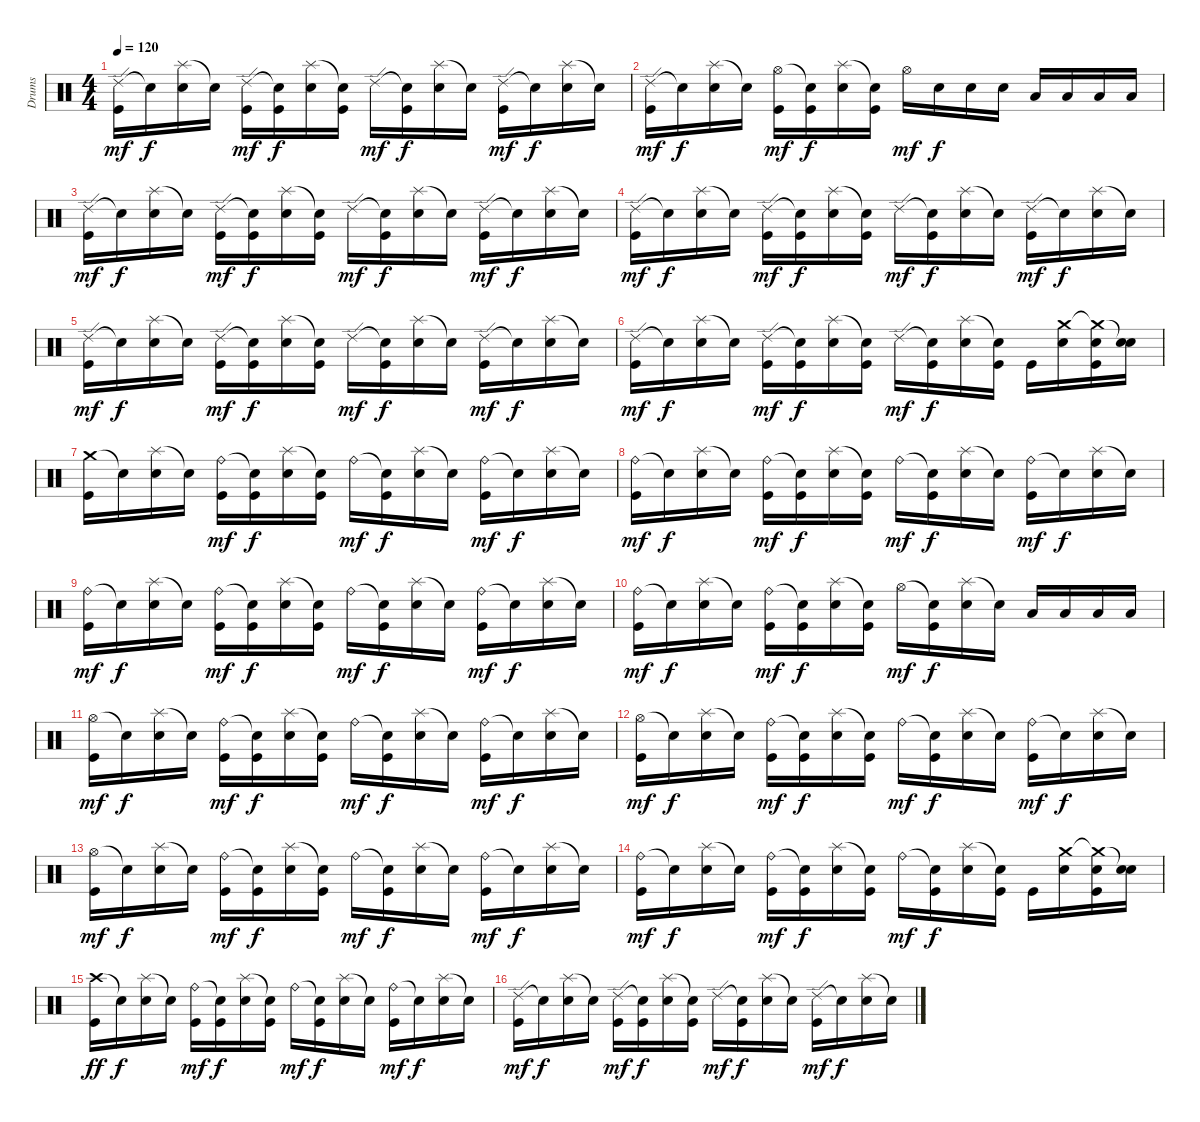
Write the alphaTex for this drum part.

\track ("Drums" "Drums") {instrument percussion}
\staff {score}
\articulation defaults
\ts (4 4)
\tempo 120
\clef neutral
\ks c
("Ride (edge) 2" "Kick (hit)").16{dy mf} "Snare (hit)"{t}.16{dy f} ("Splash (hit)" "Electric Snare (hit)").16 "Snare (hit)"{t}.16 ("Ride (edge) 2" "Kick (hit)").16{dy mf} ("Snare (hit)"{t} "Kick (hit)").16{dy f} ("Splash (hit)" "Electric Snare (hit)").16 ("Snare (hit)"{t} "Kick (hit)").16 "Ride (edge) 2".16{dy mf} ("Snare (hit)"{t} "Kick (hit)").16{dy f} ("Splash (hit)" "Electric Snare (hit)").16 "Snare (hit)"{t}.16 ("Ride (edge) 2" "Kick (hit)").16{dy mf} "Snare (hit)"{t}.16{dy f} ("Splash (hit)" "Electric Snare (hit)").16 "Snare (hit)"{t}.16 |
("Ride (edge) 2" "Kick (hit)").16{dy mf} "Snare (hit)"{t}.16{dy f} ("Splash (hit)" "Electric Snare (hit)").16 "Snare (hit)"{t}.16 ("Hi-Hat (open)" "Kick (hit)").16{dy mf} ("Snare (hit)"{t} "Kick (hit)").16{dy f} ("Splash (hit)" "Electric Snare (hit)").16 ("Snare (hit)"{t} "Kick (hit)").16 "Hi-Hat (open)".16{dy mf} "Snare (hit) 2".16{dy f} "Snare (hit) 2".16 "Snare (hit) 2".16 "Low Tom (hit)".16 "Low Tom (hit)".16 "Low Tom (hit)".16 "Low Tom (hit)".16 |
("Ride (edge) 2" "Kick (hit)").16{dy mf} "Snare (hit)"{t}.16{dy f} ("Splash (hit)" "Electric Snare (hit)").16 "Snare (hit)"{t}.16 ("Ride (edge) 2" "Kick (hit)").16{dy mf} ("Snare (hit)"{t} "Kick (hit)").16{dy f} ("Splash (hit)" "Electric Snare (hit)").16 ("Snare (hit)"{t} "Kick (hit)").16 "Ride (edge) 2".16{dy mf} ("Snare (hit)"{t} "Kick (hit)").16{dy f} ("Splash (hit)" "Electric Snare (hit)").16 "Snare (hit)"{t}.16 ("Ride (edge) 2" "Kick (hit)").16{dy mf} "Snare (hit)"{t}.16{dy f} ("Splash (hit)" "Electric Snare (hit)").16 "Snare (hit)"{t}.16 |
("Ride (edge) 2" "Kick (hit)").16{dy mf} "Snare (hit)"{t}.16{dy f} ("Splash (hit)" "Electric Snare (hit)").16 "Snare (hit)"{t}.16 ("Ride (edge) 2" "Kick (hit)").16{dy mf} ("Snare (hit)"{t} "Kick (hit)").16{dy f} ("Splash (hit)" "Electric Snare (hit)").16 ("Snare (hit)"{t} "Kick (hit)").16 "Ride (edge) 2".16{dy mf} ("Snare (hit)"{t} "Kick (hit)").16{dy f} ("Splash (hit)" "Electric Snare (hit)").16 "Snare (hit)"{t}.16 ("Ride (edge) 2" "Kick (hit)").16{dy mf} "Snare (hit)"{t}.16{dy f} ("Splash (hit)" "Electric Snare (hit)").16 "Snare (hit)"{t}.16 |
("Ride (edge) 2" "Kick (hit)").16{dy mf} "Snare (hit)"{t}.16{dy f} ("Splash (hit)" "Electric Snare (hit)").16 "Snare (hit)"{t}.16 ("Ride (edge) 2" "Kick (hit)").16{dy mf} ("Snare (hit)"{t} "Kick (hit)").16{dy f} ("Splash (hit)" "Electric Snare (hit)").16 ("Snare (hit)"{t} "Kick (hit)").16 "Ride (edge) 2".16{dy mf} ("Snare (hit)"{t} "Kick (hit)").16{dy f} ("Splash (hit)" "Electric Snare (hit)").16 "Snare (hit)"{t}.16 ("Ride (edge) 2" "Kick (hit)").16{dy mf} "Snare (hit)"{t}.16{dy f} ("Splash (hit)" "Electric Snare (hit)").16 "Snare (hit)"{t}.16 |
("Ride (edge) 2" "Kick (hit)").16{dy mf} "Snare (hit)"{t}.16{dy f} ("Splash (hit)" "Electric Snare (hit)").16 "Snare (hit)"{t}.16 ("Ride (edge) 2" "Kick (hit)").16{dy mf} ("Snare (hit)"{t} "Kick (hit)").16{dy f} ("Splash (hit)" "Electric Snare (hit)").16 ("Snare (hit)"{t} "Kick (hit)").16 "Ride (edge) 2".16{dy mf} ("Snare (hit)"{t} "Kick (hit)").16{dy f} ("Splash (hit)" "Electric Snare (hit)").16 ("Snare (hit)"{t} "Kick (hit)").16 "Kick (hit)".16 ("Crash medium (hit)" "Electric Snare (hit)").16 ("Crash medium (hit)"{t} "Electric Snare (hit)" "Kick (hit)").16 ("Snare (hit)"{t} "Electric Snare (hit)").16 |
("Crash medium (hit)" "Kick (hit)").16 "Snare (hit)"{t}.16 ("Splash (hit)" "Electric Snare (hit)").16 "Snare (hit)"{t}.16 ("Ride (bell)" "Kick (hit)").16{dy mf} ("Snare (hit)"{t} "Kick (hit)").16{dy f} ("Splash (hit)" "Electric Snare (hit)").16 ("Snare (hit)"{t} "Kick (hit)").16 "Ride (bell)".16{dy mf} ("Snare (hit)"{t} "Kick (hit)").16{dy f} ("Splash (hit)" "Electric Snare (hit)").16 "Snare (hit)"{t}.16 ("Ride (bell)" "Kick (hit)").16{dy mf} "Snare (hit)"{t}.16{dy f} ("Splash (hit)" "Electric Snare (hit)").16 "Snare (hit)"{t}.16 |
("Ride (bell)" "Kick (hit)").16{dy mf} "Snare (hit)"{t}.16{dy f} ("Splash (hit)" "Electric Snare (hit)").16 "Snare (hit)"{t}.16 ("Ride (bell)" "Kick (hit)").16{dy mf} ("Snare (hit)"{t} "Kick (hit)").16{dy f} ("Splash (hit)" "Electric Snare (hit)").16 ("Snare (hit)"{t} "Kick (hit)").16 "Ride (bell)".16{dy mf} ("Snare (hit)"{t} "Kick (hit)").16{dy f} ("Splash (hit)" "Electric Snare (hit)").16 "Snare (hit)"{t}.16 ("Ride (bell)" "Kick (hit)").16{dy mf} "Snare (hit)"{t}.16{dy f} ("Splash (hit)" "Electric Snare (hit)").16 "Snare (hit)"{t}.16 |
("Ride (bell)" "Kick (hit)").16{dy mf} "Snare (hit)"{t}.16{dy f} ("Splash (hit)" "Electric Snare (hit)").16 "Snare (hit)"{t}.16 ("Ride (bell)" "Kick (hit)").16{dy mf} ("Snare (hit)"{t} "Kick (hit)").16{dy f} ("Splash (hit)" "Electric Snare (hit)").16 ("Snare (hit)"{t} "Kick (hit)").16 "Ride (bell)".16{dy mf} ("Snare (hit)"{t} "Kick (hit)").16{dy f} ("Splash (hit)" "Electric Snare (hit)").16 "Snare (hit)"{t}.16 ("Ride (bell)" "Kick (hit)").16{dy mf} "Snare (hit)"{t}.16{dy f} ("Splash (hit)" "Electric Snare (hit)").16 "Snare (hit)"{t}.16 |
("Ride (bell)" "Kick (hit)").16{dy mf} "Snare (hit)"{t}.16{dy f} ("Splash (hit)" "Electric Snare (hit)").16 "Snare (hit)"{t}.16 ("Ride (bell)" "Kick (hit)").16{dy mf} ("Snare (hit)"{t} "Kick (hit)").16{dy f} ("Splash (hit)" "Electric Snare (hit)").16 ("Snare (hit)"{t} "Kick (hit)").16 "Hi-Hat (open)".16{dy mf} ("Snare (hit)"{t} "Kick (hit)").16{dy f} ("Splash (hit)" "Electric Snare (hit)").16 "Snare (hit)"{t}.16 "Low Tom (hit)".16 "Low Tom (hit)".16 "Low Tom (hit)".16 "Low Tom (hit)".16 |
("Hi-Hat (open)" "Kick (hit)").16{dy mf} "Snare (hit)"{t}.16{dy f} ("Splash (hit)" "Electric Snare (hit)").16 "Snare (hit)"{t}.16 ("Ride (bell)" "Kick (hit)").16{dy mf} ("Snare (hit)"{t} "Kick (hit)").16{dy f} ("Splash (hit)" "Electric Snare (hit)").16 ("Snare (hit)"{t} "Kick (hit)").16 "Ride (bell)".16{dy mf} ("Snare (hit)"{t} "Kick (hit)").16{dy f} ("Splash (hit)" "Electric Snare (hit)").16 "Snare (hit)"{t}.16 ("Ride (bell)" "Kick (hit)").16{dy mf} "Snare (hit)"{t}.16{dy f} ("Splash (hit)" "Electric Snare (hit)").16 "Snare (hit)"{t}.16 |
("Hi-Hat (open)" "Kick (hit)").16{dy mf} "Snare (hit)"{t}.16{dy f} ("Splash (hit)" "Electric Snare (hit)").16 "Snare (hit)"{t}.16 ("Ride (bell)" "Kick (hit)").16{dy mf} ("Snare (hit)"{t} "Kick (hit)").16{dy f} ("Splash (hit)" "Electric Snare (hit)").16 ("Snare (hit)"{t} "Kick (hit)").16 "Ride (bell)".16{dy mf} ("Snare (hit)"{t} "Kick (hit)").16{dy f} ("Splash (hit)" "Electric Snare (hit)").16 "Snare (hit)"{t}.16 ("Ride (bell)" "Kick (hit)").16{dy mf} "Snare (hit)"{t}.16{dy f} ("Splash (hit)" "Electric Snare (hit)").16 "Snare (hit)"{t}.16 |
("Hi-Hat (open)" "Kick (hit)").16{dy mf} "Snare (hit)"{t}.16{dy f} ("Splash (hit)" "Electric Snare (hit)").16 "Snare (hit)"{t}.16 ("Ride (bell)" "Kick (hit)").16{dy mf} ("Snare (hit)"{t} "Kick (hit)").16{dy f} ("Splash (hit)" "Electric Snare (hit)").16 ("Snare (hit)"{t} "Kick (hit)").16 "Ride (bell)".16{dy mf} ("Snare (hit)"{t} "Kick (hit)").16{dy f} ("Splash (hit)" "Electric Snare (hit)").16 "Snare (hit)"{t}.16 ("Ride (bell)" "Kick (hit)").16{dy mf} "Snare (hit)"{t}.16{dy f} ("Splash (hit)" "Electric Snare (hit)").16 "Snare (hit)"{t}.16 |
("Ride (bell)" "Kick (hit)").16{dy mf} "Snare (hit)"{t}.16{dy f} ("Splash (hit)" "Electric Snare (hit)").16 "Snare (hit)"{t}.16 ("Ride (bell)" "Kick (hit)").16{dy mf} ("Snare (hit)"{t} "Kick (hit)").16{dy f} ("Splash (hit)" "Electric Snare (hit)").16 ("Snare (hit)"{t} "Kick (hit)").16 "Ride (bell)".16{dy mf} ("Snare (hit)"{t} "Kick (hit)").16{dy f} ("Splash (hit)" "Electric Snare (hit)").16 ("Snare (hit)"{t} "Kick (hit)").16 "Kick (hit)".16 ("Crash medium (hit)" "Electric Snare (hit)").16 ("Crash medium (hit)"{t} "Electric Snare (hit)" "Kick (hit)").16 ("Snare (hit)"{t} "Electric Snare (hit)").16 |
("Crash high (hit)" "Kick (hit)").16{dy ff} "Snare (hit)"{t}.16{dy f} ("Splash (hit)" "Electric Snare (hit)").16 "Snare (hit)"{t}.16 ("Ride (bell)" "Kick (hit)").16{dy mf} ("Snare (hit)"{t} "Kick (hit)").16{dy f} ("Splash (hit)" "Electric Snare (hit)").16 ("Snare (hit)"{t} "Kick (hit)").16 "Ride (bell)".16{dy mf} ("Snare (hit)"{t} "Kick (hit)").16{dy f} ("Splash (hit)" "Electric Snare (hit)").16 "Snare (hit)"{t}.16 ("Ride (bell)" "Kick (hit)").16{dy mf} "Snare (hit)"{t}.16{dy f} ("Splash (hit)" "Electric Snare (hit)").16 "Snare (hit)"{t}.16 |
("Ride (edge) 2" "Kick (hit)").16{dy mf} "Snare (hit)"{t}.16{dy f} ("Splash (hit)" "Electric Snare (hit)").16 "Snare (hit)"{t}.16 ("Ride (edge) 2" "Kick (hit)").16{dy mf} ("Snare (hit)"{t} "Kick (hit)").16{dy f} ("Splash (hit)" "Electric Snare (hit)").16 ("Snare (hit)"{t} "Kick (hit)").16 "Ride (edge) 2".16{dy mf} ("Snare (hit)"{t} "Kick (hit)").16{dy f} ("Splash (hit)" "Electric Snare (hit)").16 "Snare (hit)"{t}.16 ("Ride (edge) 2" "Kick (hit)").16{dy mf} "Snare (hit)"{t}.16{dy f} ("Splash (hit)" "Electric Snare (hit)").16 "Snare (hit)"{t}.16
